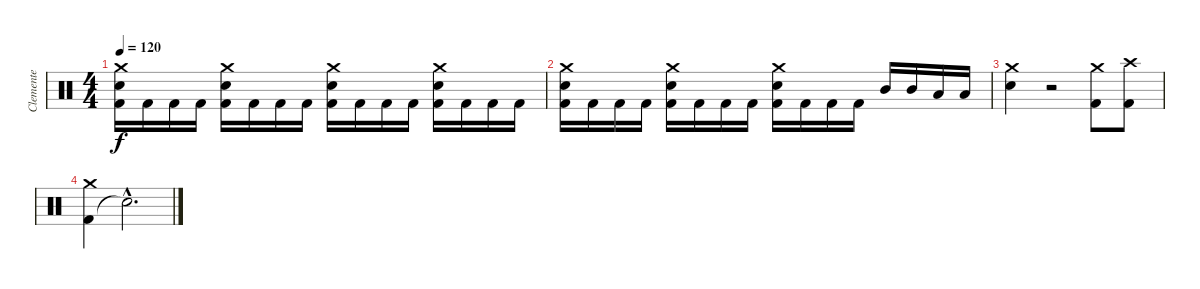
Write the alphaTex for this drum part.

\track ("Clemente" "Clemente") {instrument percussion}
\staff {score}
\articulation defaults
\ts (4 4)
\tempo 120
\clef neutral
\ks c
("Kick (hit) 2" "Electric Snare (hit)" "Crash medium (hit)").16{dy f} "Kick (hit) 2".16 "Kick (hit) 2".16 "Kick (hit) 2".16 ("Kick (hit) 2" "Electric Snare (hit)" "Crash medium (hit)").16 "Kick (hit) 2".16 "Kick (hit) 2".16 "Kick (hit) 2".16 ("Kick (hit) 2" "Electric Snare (hit)" "Crash medium (hit)").16 "Kick (hit) 2".16 "Kick (hit) 2".16 "Kick (hit) 2".16 ("Kick (hit) 2" "Electric Snare (hit)" "Crash medium (hit)").16 "Kick (hit) 2".16 "Kick (hit) 2".16 "Kick (hit) 2".16 |
("Kick (hit) 2" "Electric Snare (hit)" "Crash medium (hit)").16 "Kick (hit) 2".16 "Kick (hit) 2".16 "Kick (hit) 2".16 ("Kick (hit) 2" "Electric Snare (hit)" "Crash medium (hit)").16 "Kick (hit) 2".16 "Kick (hit) 2".16 "Kick (hit) 2".16 ("Kick (hit) 2" "Electric Snare (hit)" "Crash medium (hit)").16 "Kick (hit) 2".16 "Kick (hit) 2".16 "Kick (hit) 2".16 "Mid Tom (hit)".16 "Mid Tom (hit)".16 "Low Tom (hit)".16 "Low Tom (hit)".16 |
("Electric Snare (hit)" "Crash medium (hit)").4 r.2 ("Kick (hit) 2" "Crash medium (hit)").8 ("Kick (hit) 2" "Crash high (hit)").8 |
("Kick (hit) 2" "Crash medium (hit)").4 "Snare (hit)"{hac t}.2{d}
